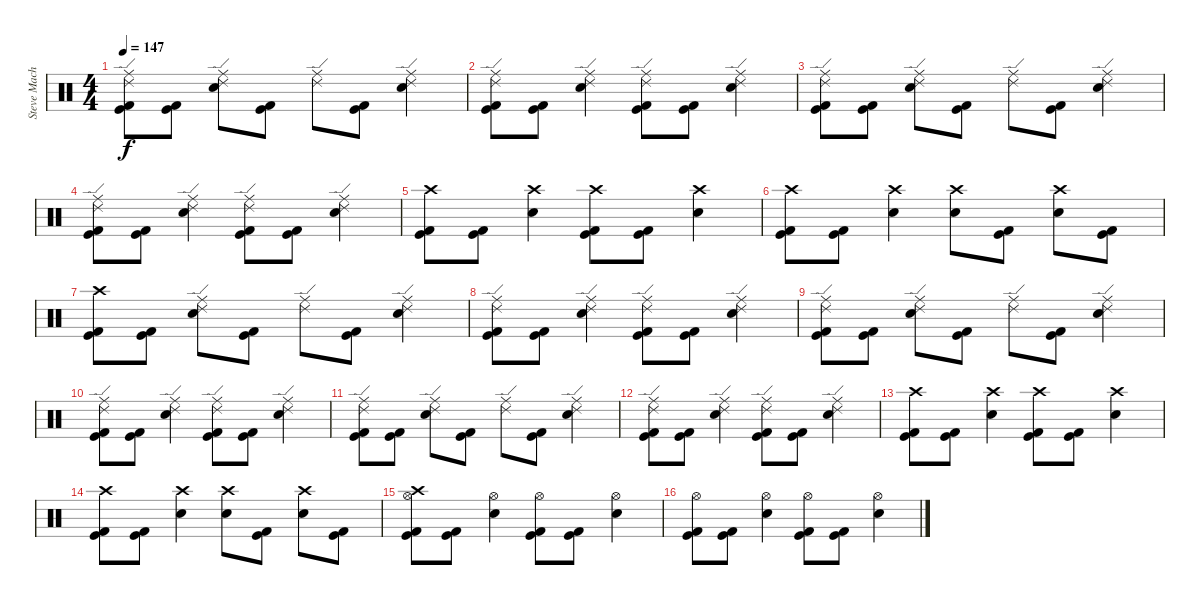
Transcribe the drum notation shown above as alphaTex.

\track ("Steve Machine West" "Steve Mach") {instrument percussion}
\staff {score}
\articulation defaults
\ts (4 4)
\tempo 147
\clef neutral
\ks c
("Ride (middle)" "Ride (edge) 2" "Kick (hit)" "Kick (hit) 2").8{dy f} ("Kick (hit)" "Kick (hit) 2").8 ("Ride (middle)" "Ride (edge) 2" "Electric Snare (hit)").8 ("Kick (hit)" "Kick (hit) 2").8 ("Ride (middle)" "Ride (edge) 2").8 ("Kick (hit)" "Kick (hit) 2").8 ("Ride (middle)" "Ride (edge) 2" "Electric Snare (hit)").4 |
("Ride (middle)" "Ride (edge) 2" "Kick (hit)" "Kick (hit) 2").8 ("Kick (hit)" "Kick (hit) 2").8 ("Ride (middle)" "Ride (edge) 2" "Electric Snare (hit)").4 ("Ride (middle)" "Ride (edge) 2" "Kick (hit)" "Kick (hit) 2").8 ("Kick (hit)" "Kick (hit) 2").8 ("Ride (middle)" "Ride (edge) 2" "Electric Snare (hit)").4 |
("Ride (middle)" "Ride (edge) 2" "Kick (hit)" "Kick (hit) 2").8 ("Kick (hit)" "Kick (hit) 2").8 ("Ride (middle)" "Ride (edge) 2" "Electric Snare (hit)").8 ("Kick (hit)" "Kick (hit) 2").8 ("Ride (middle)" "Ride (edge) 2").8 ("Kick (hit)" "Kick (hit) 2").8 ("Ride (middle)" "Ride (edge) 2" "Electric Snare (hit)").4 |
("Ride (middle)" "Ride (edge) 2" "Kick (hit)" "Kick (hit) 2").8 ("Kick (hit)" "Kick (hit) 2").8 ("Ride (middle)" "Ride (edge) 2" "Electric Snare (hit)").4 ("Ride (middle)" "Ride (edge) 2" "Kick (hit)" "Kick (hit) 2").8 ("Kick (hit)" "Kick (hit) 2").8 ("Ride (middle)" "Ride (edge) 2" "Electric Snare (hit)").4 |
("Crash high (hit)" "Kick (hit)" "Kick (hit) 2").8 ("Kick (hit)" "Kick (hit) 2").8 ("Crash high (hit)" "Electric Snare (hit)").4 ("Crash high (hit)" "Kick (hit)" "Kick (hit) 2").8 ("Kick (hit)" "Kick (hit) 2").8 ("Crash high (hit)" "Electric Snare (hit)").4 |
("Crash high (hit)" "Kick (hit)" "Kick (hit) 2").8 ("Kick (hit)" "Kick (hit) 2").8 ("Crash high (hit)" "Electric Snare (hit)").4 ("Crash high (hit)" "Electric Snare (hit)").8 ("Kick (hit)" "Kick (hit) 2").8 ("Crash high (hit)" "Electric Snare (hit)").8 ("Kick (hit)" "Kick (hit) 2").8 |
("Crash high (hit)" "Kick (hit)" "Kick (hit) 2").8 ("Kick (hit)" "Kick (hit) 2").8 ("Ride (middle)" "Ride (edge) 2" "Electric Snare (hit)").8 ("Kick (hit)" "Kick (hit) 2").8 ("Ride (middle)" "Ride (edge) 2").8 ("Kick (hit)" "Kick (hit) 2").8 ("Ride (middle)" "Ride (edge) 2" "Electric Snare (hit)").4 |
("Ride (middle)" "Ride (edge) 2" "Kick (hit)" "Kick (hit) 2").8 ("Kick (hit)" "Kick (hit) 2").8 ("Ride (middle)" "Ride (edge) 2" "Electric Snare (hit)").4 ("Ride (middle)" "Ride (edge) 2" "Kick (hit)" "Kick (hit) 2").8 ("Kick (hit)" "Kick (hit) 2").8 ("Ride (middle)" "Ride (edge) 2" "Electric Snare (hit)").4 |
("Ride (middle)" "Ride (edge) 2" "Kick (hit)" "Kick (hit) 2").8 ("Kick (hit)" "Kick (hit) 2").8 ("Ride (middle)" "Ride (edge) 2" "Electric Snare (hit)").8 ("Kick (hit)" "Kick (hit) 2").8 ("Ride (middle)" "Ride (edge) 2").8 ("Kick (hit)" "Kick (hit) 2").8 ("Ride (middle)" "Ride (edge) 2" "Electric Snare (hit)").4 |
("Ride (middle)" "Ride (edge) 2" "Kick (hit)" "Kick (hit) 2").8 ("Kick (hit)" "Kick (hit) 2").8 ("Ride (middle)" "Ride (edge) 2" "Electric Snare (hit)").4 ("Ride (middle)" "Ride (edge) 2" "Kick (hit)" "Kick (hit) 2").8 ("Kick (hit)" "Kick (hit) 2").8 ("Ride (middle)" "Ride (edge) 2" "Electric Snare (hit)").4 |
("Ride (middle)" "Ride (edge) 2" "Kick (hit)" "Kick (hit) 2").8 ("Kick (hit)" "Kick (hit) 2").8 ("Ride (middle)" "Ride (edge) 2" "Electric Snare (hit)").8 ("Kick (hit)" "Kick (hit) 2").8 ("Ride (middle)" "Ride (edge) 2").8 ("Kick (hit)" "Kick (hit) 2").8 ("Ride (middle)" "Ride (edge) 2" "Electric Snare (hit)").4 |
("Ride (middle)" "Ride (edge) 2" "Kick (hit)" "Kick (hit) 2").8 ("Kick (hit)" "Kick (hit) 2").8 ("Ride (middle)" "Ride (edge) 2" "Electric Snare (hit)").4 ("Ride (middle)" "Ride (edge) 2" "Kick (hit)" "Kick (hit) 2").8 ("Kick (hit)" "Kick (hit) 2").8 ("Ride (middle)" "Ride (edge) 2" "Electric Snare (hit)").4 |
("Crash high (hit)" "Kick (hit)" "Kick (hit) 2").8 ("Kick (hit)" "Kick (hit) 2").8 ("Crash high (hit)" "Electric Snare (hit)").4 ("Crash high (hit)" "Kick (hit)" "Kick (hit) 2").8 ("Kick (hit)" "Kick (hit) 2").8 ("Crash high (hit)" "Electric Snare (hit)").4 |
("Crash high (hit)" "Kick (hit)" "Kick (hit) 2").8 ("Kick (hit)" "Kick (hit) 2").8 ("Crash high (hit)" "Electric Snare (hit)").4 ("Crash high (hit)" "Electric Snare (hit)").8 ("Kick (hit)" "Kick (hit) 2").8 ("Crash high (hit)" "Electric Snare (hit)").8 ("Kick (hit)" "Kick (hit) 2").8 |
("Crash high (hit)" "Hi-Hat (open)" "Kick (hit)" "Kick (hit) 2").8 ("Kick (hit)" "Kick (hit) 2").8 ("Hi-Hat (open)" "Electric Snare (hit)").4 ("Hi-Hat (open)" "Kick (hit)" "Kick (hit) 2").8 ("Kick (hit)" "Kick (hit) 2").8 ("Hi-Hat (open)" "Electric Snare (hit)").4 |
("Hi-Hat (open)" "Kick (hit)" "Kick (hit) 2").8 ("Kick (hit)" "Kick (hit) 2").8 ("Hi-Hat (open)" "Electric Snare (hit)").4 ("Hi-Hat (open)" "Kick (hit)" "Kick (hit) 2").8 ("Kick (hit)" "Kick (hit) 2").8 ("Hi-Hat (open)" "Electric Snare (hit)").4
